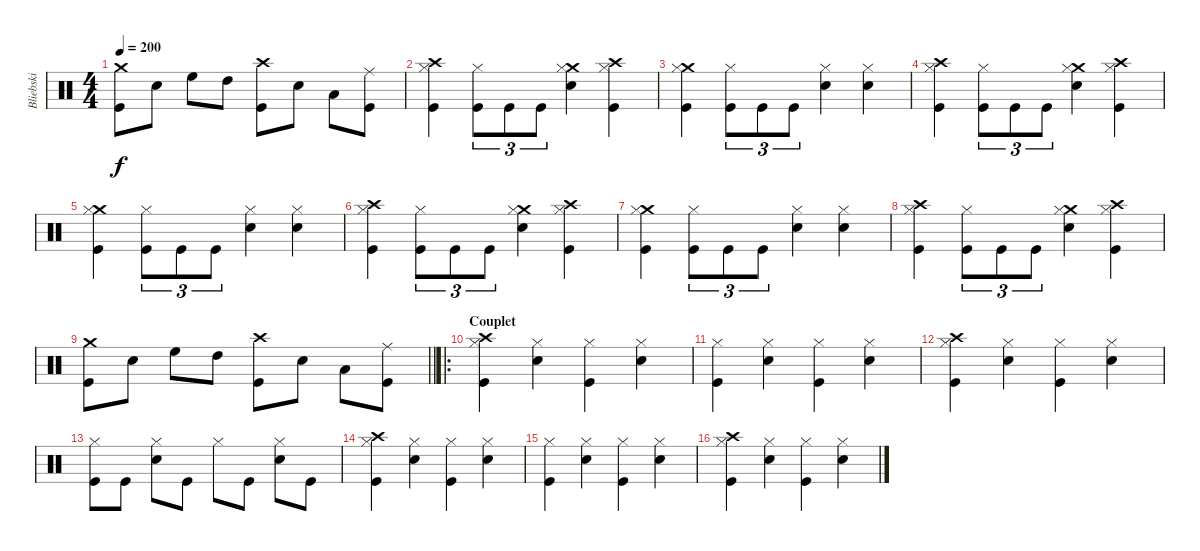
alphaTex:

\track ("Bliebski" "Bliebski") {instrument percussion}
\staff {score}
\articulation defaults
\ts (4 4)
\tempo 200
\clef neutral
\ks c
("Crash medium (hit)" "Kick (hit)").8{dy f} "Snare (hit) 2".8 "High Floor Tom (hit)".8 "High Tom (hit)".8 ("Crash high (hit)" "Kick (hit)").8 "Snare (hit) 2".8 "Low Tom (hit)".8 ("Ride (middle)" "Kick (hit)").8 |
("Crash high (hit)" "Hi-Hat (closed)" "Kick (hit)").4 ("Hi-Hat (closed)" "Kick (hit)").8{tu (3 2)} "Kick (hit)".8{tu (3 2)} "Kick (hit)".8{tu (3 2)} ("Crash medium (hit)" "Hi-Hat (closed)" "Snare (hit) 2").4 ("Crash high (hit)" "Hi-Hat (closed)" "Kick (hit)").4 |
("Crash medium (hit)" "Hi-Hat (closed)" "Kick (hit)").4 ("Hi-Hat (closed)" "Kick (hit)").8{tu (3 2)} "Kick (hit)".8{tu (3 2)} "Kick (hit)".8{tu (3 2)} ("Hi-Hat (closed)" "Snare (hit) 2").4 ("Hi-Hat (closed)" "Snare (hit) 2").4 |
("Crash high (hit)" "Hi-Hat (closed)" "Kick (hit)").4 ("Hi-Hat (closed)" "Kick (hit)").8{tu (3 2)} "Kick (hit)".8{tu (3 2)} "Kick (hit)".8{tu (3 2)} ("Crash medium (hit)" "Hi-Hat (closed)" "Snare (hit) 2").4 ("Crash high (hit)" "Hi-Hat (closed)" "Kick (hit)").4 |
("Crash medium (hit)" "Hi-Hat (closed)" "Kick (hit)").4 ("Hi-Hat (closed)" "Kick (hit)").8{tu (3 2)} "Kick (hit)".8{tu (3 2)} "Kick (hit)".8{tu (3 2)} ("Hi-Hat (closed)" "Snare (hit) 2").4 ("Hi-Hat (closed)" "Snare (hit) 2").4 |
("Crash high (hit)" "Hi-Hat (closed)" "Kick (hit)").4 ("Hi-Hat (closed)" "Kick (hit)").8{tu (3 2)} "Kick (hit)".8{tu (3 2)} "Kick (hit)".8{tu (3 2)} ("Crash medium (hit)" "Hi-Hat (closed)" "Snare (hit) 2").4 ("Crash high (hit)" "Hi-Hat (closed)" "Kick (hit)").4 |
("Crash medium (hit)" "Hi-Hat (closed)" "Kick (hit)").4 ("Hi-Hat (closed)" "Kick (hit)").8{tu (3 2)} "Kick (hit)".8{tu (3 2)} "Kick (hit)".8{tu (3 2)} ("Hi-Hat (closed)" "Snare (hit) 2").4 ("Hi-Hat (closed)" "Snare (hit) 2").4 |
("Crash high (hit)" "Hi-Hat (closed)" "Kick (hit)").4 ("Hi-Hat (closed)" "Kick (hit)").8{tu (3 2)} "Kick (hit)".8{tu (3 2)} "Kick (hit)".8{tu (3 2)} ("Crash medium (hit)" "Hi-Hat (closed)" "Snare (hit) 2").4 ("Crash high (hit)" "Hi-Hat (closed)" "Kick (hit)").4 |
\barLineRight lightlight
("Crash medium (hit)" "Kick (hit)").8 "Snare (hit) 2".8 "High Floor Tom (hit)".8 "High Tom (hit)".8 ("Crash high (hit)" "Kick (hit)").8 "Snare (hit) 2".8 "Low Tom (hit)".8 ("Ride (middle)" "Kick (hit)").8 |
\ro
\section ("" "Couplet")
("Crash high (hit)" "Hi-Hat (closed)" "Kick (hit)").4 ("Hi-Hat (closed)" "Snare (hit) 2").4 ("Hi-Hat (closed)" "Kick (hit)").4 ("Hi-Hat (closed)" "Snare (hit) 2").4 |
("Hi-Hat (closed)" "Kick (hit)").4 ("Hi-Hat (closed)" "Snare (hit) 2").4 ("Hi-Hat (closed)" "Kick (hit)").4 ("Hi-Hat (closed)" "Snare (hit) 2").4 |
("Crash high (hit)" "Hi-Hat (closed)" "Kick (hit)").4 ("Hi-Hat (closed)" "Snare (hit) 2").4 ("Hi-Hat (closed)" "Kick (hit)").4 ("Hi-Hat (closed)" "Snare (hit) 2").4 |
("Hi-Hat (closed)" "Kick (hit)").8 "Kick (hit)".8 ("Hi-Hat (closed)" "Snare (hit) 2").8 "Kick (hit)".8 "Hi-Hat (closed)".8 "Kick (hit)".8 ("Hi-Hat (closed)" "Snare (hit) 2").8 "Kick (hit)".8 |
("Crash high (hit)" "Hi-Hat (closed)" "Kick (hit)").4 ("Hi-Hat (closed)" "Snare (hit) 2").4 ("Hi-Hat (closed)" "Kick (hit)").4 ("Hi-Hat (closed)" "Snare (hit) 2").4 |
("Hi-Hat (closed)" "Kick (hit)").4 ("Hi-Hat (closed)" "Snare (hit) 2").4 ("Hi-Hat (closed)" "Kick (hit)").4 ("Hi-Hat (closed)" "Snare (hit) 2").4 |
("Crash high (hit)" "Hi-Hat (closed)" "Kick (hit)").4 ("Hi-Hat (closed)" "Snare (hit) 2").4 ("Hi-Hat (closed)" "Kick (hit)").4 ("Hi-Hat (closed)" "Snare (hit) 2").4
